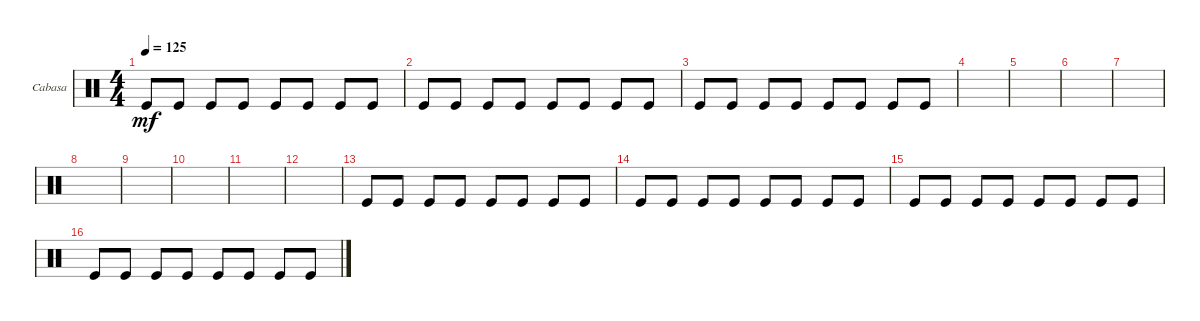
\defaultSystemsLayout 4
\bracketExtendMode groupsimilarinstruments
\firstSystemTrackNameOrientation horizontal
\otherSystemsTrackNameOrientation horizontal
\track ("Cabasa" "Cabasa") {instrument percussion}
\staff {score}
\articulation defaults
\ts (4 4)
\tempo 125
\clef neutral
\ks c "Kick (hit)".8{dy mf} "Kick (hit)".8 "Kick (hit)".8 "Kick (hit)".8 "Kick (hit)".8 "Kick (hit)".8 "Kick (hit)".8 "Kick (hit)".8
|
"Kick (hit)".8 "Kick (hit)".8 "Kick (hit)".8 "Kick (hit)".8 "Kick (hit)".8 "Kick (hit)".8 "Kick (hit)".8 "Kick (hit)".8 |
"Kick (hit)".8 "Kick (hit)".8 "Kick (hit)".8 "Kick (hit)".8 "Kick (hit)".8 "Kick (hit)".8 "Kick (hit)".8 "Kick (hit)".8 |
|
|
|
|
|
|
|
|
|
"Kick (hit)".8 "Kick (hit)".8 "Kick (hit)".8 "Kick (hit)".8 "Kick (hit)".8 "Kick (hit)".8 "Kick (hit)".8 "Kick (hit)".8 |
"Kick (hit)".8 "Kick (hit)".8 "Kick (hit)".8 "Kick (hit)".8 "Kick (hit)".8 "Kick (hit)".8 "Kick (hit)".8 "Kick (hit)".8 |
"Kick (hit)".8 "Kick (hit)".8 "Kick (hit)".8 "Kick (hit)".8 "Kick (hit)".8 "Kick (hit)".8 "Kick (hit)".8 "Kick (hit)".8 |
"Kick (hit)".8 "Kick (hit)".8 "Kick (hit)".8 "Kick (hit)".8 "Kick (hit)".8 "Kick (hit)".8 "Kick (hit)".8 "Kick (hit)".8
